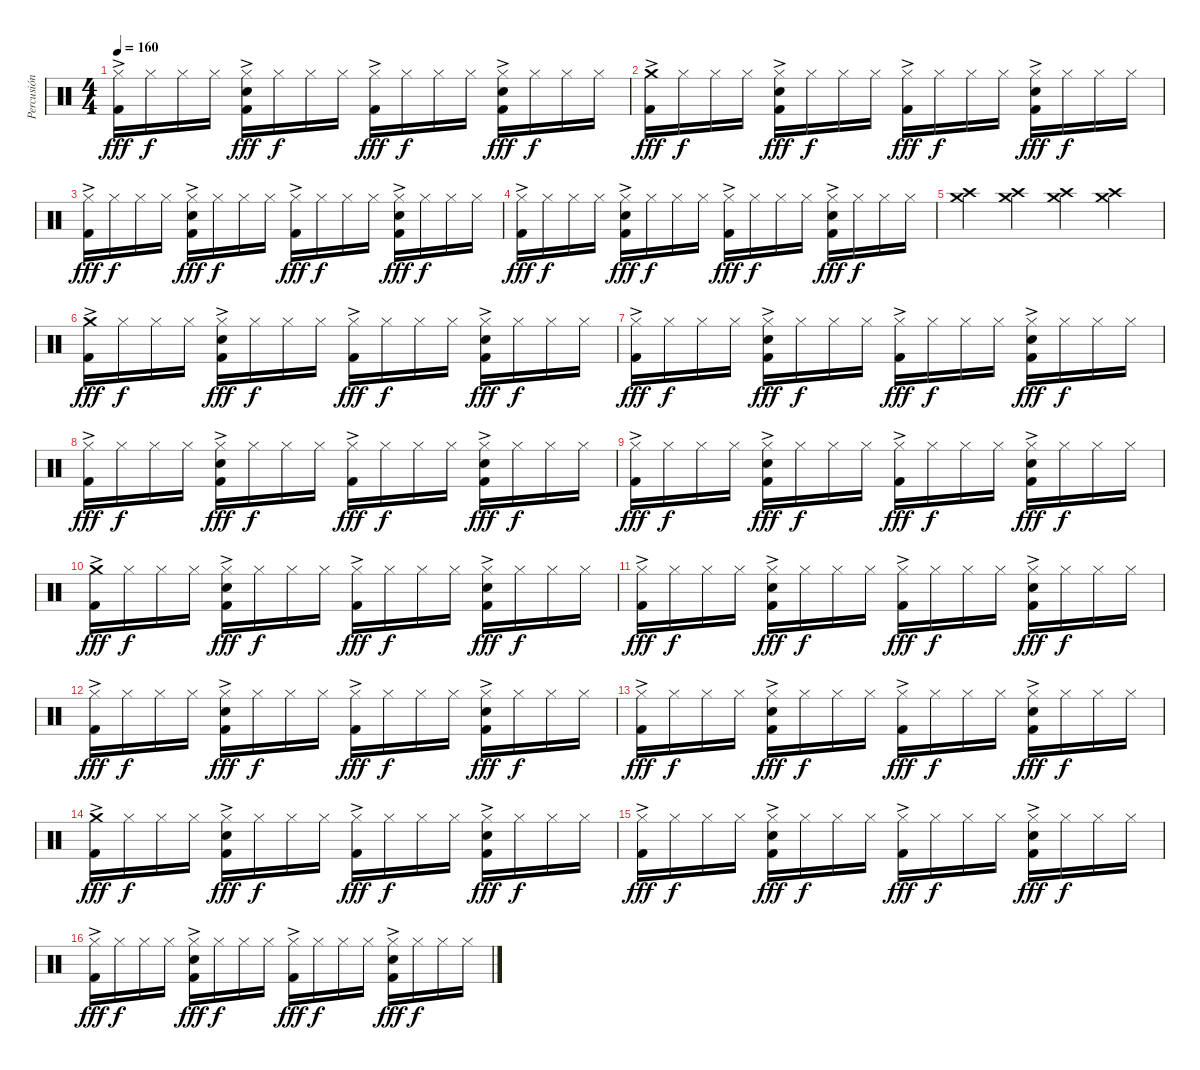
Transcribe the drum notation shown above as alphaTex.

\track ("Percusión" "Percusión") {instrument percussion}
\staff {score}
\articulation defaults
\ts (4 4)
\tempo 160
\clef neutral
\ks c
("Hi-Hat (closed)" "Kick (hit) 2"{ac}).16{dy fff} "Hi-Hat (closed)".16{dy f} "Hi-Hat (closed)".16 "Hi-Hat (closed)".16 ("Hi-Hat (closed)"{ac} "Electric Snare (hit)" "Kick (hit) 2").16{dy fff} "Hi-Hat (closed)".16{dy f} "Hi-Hat (closed)".16 "Hi-Hat (closed)".16 ("Hi-Hat (closed)"{ac} "Kick (hit) 2"{ac}).16{dy fff} "Hi-Hat (closed)".16{dy f} "Hi-Hat (closed)".16 "Hi-Hat (closed)".16 ("Hi-Hat (closed)"{ac} "Electric Snare (hit)" "Kick (hit) 2").16{dy fff} "Hi-Hat (closed)".16{dy f} "Hi-Hat (closed)".16 "Hi-Hat (closed)".16 |
("Crash medium (hit)" "Kick (hit) 2"{ac}).16{dy fff} "Hi-Hat (closed)".16{dy f} "Hi-Hat (closed)".16 "Hi-Hat (closed)".16 ("Hi-Hat (closed)"{ac} "Electric Snare (hit)" "Kick (hit) 2").16{dy fff} "Hi-Hat (closed)".16{dy f} "Hi-Hat (closed)".16 "Hi-Hat (closed)".16 ("Hi-Hat (closed)"{ac} "Kick (hit) 2"{ac}).16{dy fff} "Hi-Hat (closed)".16{dy f} "Hi-Hat (closed)".16 "Hi-Hat (closed)".16 ("Hi-Hat (closed)"{ac} "Electric Snare (hit)" "Kick (hit) 2").16{dy fff} "Hi-Hat (closed)".16{dy f} "Hi-Hat (closed)".16 "Hi-Hat (closed)".16 |
("Hi-Hat (closed)" "Kick (hit) 2"{ac}).16{dy fff} "Hi-Hat (closed)".16{dy f} "Hi-Hat (closed)".16 "Hi-Hat (closed)".16 ("Hi-Hat (closed)"{ac} "Electric Snare (hit)" "Kick (hit) 2").16{dy fff} "Hi-Hat (closed)".16{dy f} "Hi-Hat (closed)".16 "Hi-Hat (closed)".16 ("Hi-Hat (closed)"{ac} "Kick (hit) 2"{ac}).16{dy fff} "Hi-Hat (closed)".16{dy f} "Hi-Hat (closed)".16 "Hi-Hat (closed)".16 ("Hi-Hat (closed)"{ac} "Electric Snare (hit)" "Kick (hit) 2").16{dy fff} "Hi-Hat (closed)".16{dy f} "Hi-Hat (closed)".16 "Hi-Hat (closed)".16 |
("Hi-Hat (closed)" "Kick (hit) 2"{ac}).16{dy fff} "Hi-Hat (closed)".16{dy f} "Hi-Hat (closed)".16 "Hi-Hat (closed)".16 ("Hi-Hat (closed)"{ac} "Electric Snare (hit)" "Kick (hit) 2").16{dy fff} "Hi-Hat (closed)".16{dy f} "Hi-Hat (closed)".16 "Hi-Hat (closed)".16 ("Hi-Hat (closed)"{ac} "Kick (hit) 2"{ac}).16{dy fff} "Hi-Hat (closed)".16{dy f} "Hi-Hat (closed)".16 "Hi-Hat (closed)".16 ("Hi-Hat (closed)"{ac} "Electric Snare (hit)" "Kick (hit) 2").16{dy fff} "Hi-Hat (closed)".16{dy f} "Hi-Hat (closed)".16 "Hi-Hat (closed)".16 |
("Crash medium (hit)" "Crash high (hit)").4 ("Crash medium (hit)" "Crash high (hit)").4 ("Crash medium (hit)" "Crash high (hit)").4 ("Crash medium (hit)" "Crash high (hit)").4 |
("Crash medium (hit)" "Kick (hit) 2"{ac}).16{dy fff} "Hi-Hat (closed)".16{dy f} "Hi-Hat (closed)".16 "Hi-Hat (closed)".16 ("Hi-Hat (closed)"{ac} "Electric Snare (hit)" "Kick (hit) 2").16{dy fff} "Hi-Hat (closed)".16{dy f} "Hi-Hat (closed)".16 "Hi-Hat (closed)".16 ("Hi-Hat (closed)"{ac} "Kick (hit) 2"{ac}).16{dy fff} "Hi-Hat (closed)".16{dy f} "Hi-Hat (closed)".16 "Hi-Hat (closed)".16 ("Hi-Hat (closed)"{ac} "Electric Snare (hit)" "Kick (hit) 2").16{dy fff} "Hi-Hat (closed)".16{dy f} "Hi-Hat (closed)".16 "Hi-Hat (closed)".16 |
("Hi-Hat (closed)" "Kick (hit) 2"{ac}).16{dy fff} "Hi-Hat (closed)".16{dy f} "Hi-Hat (closed)".16 "Hi-Hat (closed)".16 ("Hi-Hat (closed)"{ac} "Electric Snare (hit)" "Kick (hit) 2").16{dy fff} "Hi-Hat (closed)".16{dy f} "Hi-Hat (closed)".16 "Hi-Hat (closed)".16 ("Hi-Hat (closed)"{ac} "Kick (hit) 2"{ac}).16{dy fff} "Hi-Hat (closed)".16{dy f} "Hi-Hat (closed)".16 "Hi-Hat (closed)".16 ("Hi-Hat (closed)"{ac} "Electric Snare (hit)" "Kick (hit) 2").16{dy fff} "Hi-Hat (closed)".16{dy f} "Hi-Hat (closed)".16 "Hi-Hat (closed)".16 |
("Hi-Hat (closed)" "Kick (hit) 2"{ac}).16{dy fff} "Hi-Hat (closed)".16{dy f} "Hi-Hat (closed)".16 "Hi-Hat (closed)".16 ("Hi-Hat (closed)"{ac} "Electric Snare (hit)" "Kick (hit) 2").16{dy fff} "Hi-Hat (closed)".16{dy f} "Hi-Hat (closed)".16 "Hi-Hat (closed)".16 ("Hi-Hat (closed)"{ac} "Kick (hit) 2"{ac}).16{dy fff} "Hi-Hat (closed)".16{dy f} "Hi-Hat (closed)".16 "Hi-Hat (closed)".16 ("Hi-Hat (closed)"{ac} "Electric Snare (hit)" "Kick (hit) 2").16{dy fff} "Hi-Hat (closed)".16{dy f} "Hi-Hat (closed)".16 "Hi-Hat (closed)".16 |
("Hi-Hat (closed)" "Kick (hit) 2"{ac}).16{dy fff} "Hi-Hat (closed)".16{dy f} "Hi-Hat (closed)".16 "Hi-Hat (closed)".16 ("Hi-Hat (closed)"{ac} "Electric Snare (hit)" "Kick (hit) 2").16{dy fff} "Hi-Hat (closed)".16{dy f} "Hi-Hat (closed)".16 "Hi-Hat (closed)".16 ("Hi-Hat (closed)"{ac} "Kick (hit) 2"{ac}).16{dy fff} "Hi-Hat (closed)".16{dy f} "Hi-Hat (closed)".16 "Hi-Hat (closed)".16 ("Hi-Hat (closed)"{ac} "Electric Snare (hit)" "Kick (hit) 2").16{dy fff} "Hi-Hat (closed)".16{dy f} "Hi-Hat (closed)".16 "Hi-Hat (closed)".16 |
("Crash medium (hit)" "Kick (hit) 2"{ac}).16{dy fff} "Hi-Hat (closed)".16{dy f} "Hi-Hat (closed)".16 "Hi-Hat (closed)".16 ("Hi-Hat (closed)"{ac} "Electric Snare (hit)" "Kick (hit) 2").16{dy fff} "Hi-Hat (closed)".16{dy f} "Hi-Hat (closed)".16 "Hi-Hat (closed)".16 ("Hi-Hat (closed)"{ac} "Kick (hit) 2"{ac}).16{dy fff} "Hi-Hat (closed)".16{dy f} "Hi-Hat (closed)".16 "Hi-Hat (closed)".16 ("Hi-Hat (closed)"{ac} "Electric Snare (hit)" "Kick (hit) 2").16{dy fff} "Hi-Hat (closed)".16{dy f} "Hi-Hat (closed)".16 "Hi-Hat (closed)".16 |
("Hi-Hat (closed)" "Kick (hit) 2"{ac}).16{dy fff} "Hi-Hat (closed)".16{dy f} "Hi-Hat (closed)".16 "Hi-Hat (closed)".16 ("Hi-Hat (closed)"{ac} "Electric Snare (hit)" "Kick (hit) 2").16{dy fff} "Hi-Hat (closed)".16{dy f} "Hi-Hat (closed)".16 "Hi-Hat (closed)".16 ("Hi-Hat (closed)"{ac} "Kick (hit) 2"{ac}).16{dy fff} "Hi-Hat (closed)".16{dy f} "Hi-Hat (closed)".16 "Hi-Hat (closed)".16 ("Hi-Hat (closed)"{ac} "Electric Snare (hit)" "Kick (hit) 2").16{dy fff} "Hi-Hat (closed)".16{dy f} "Hi-Hat (closed)".16 "Hi-Hat (closed)".16 |
("Hi-Hat (closed)" "Kick (hit) 2"{ac}).16{dy fff} "Hi-Hat (closed)".16{dy f} "Hi-Hat (closed)".16 "Hi-Hat (closed)".16 ("Hi-Hat (closed)"{ac} "Electric Snare (hit)" "Kick (hit) 2").16{dy fff} "Hi-Hat (closed)".16{dy f} "Hi-Hat (closed)".16 "Hi-Hat (closed)".16 ("Hi-Hat (closed)"{ac} "Kick (hit) 2"{ac}).16{dy fff} "Hi-Hat (closed)".16{dy f} "Hi-Hat (closed)".16 "Hi-Hat (closed)".16 ("Hi-Hat (closed)"{ac} "Electric Snare (hit)" "Kick (hit) 2").16{dy fff} "Hi-Hat (closed)".16{dy f} "Hi-Hat (closed)".16 "Hi-Hat (closed)".16 |
("Hi-Hat (closed)" "Kick (hit) 2"{ac}).16{dy fff} "Hi-Hat (closed)".16{dy f} "Hi-Hat (closed)".16 "Hi-Hat (closed)".16 ("Hi-Hat (closed)"{ac} "Electric Snare (hit)" "Kick (hit) 2").16{dy fff} "Hi-Hat (closed)".16{dy f} "Hi-Hat (closed)".16 "Hi-Hat (closed)".16 ("Hi-Hat (closed)"{ac} "Kick (hit) 2"{ac}).16{dy fff} "Hi-Hat (closed)".16{dy f} "Hi-Hat (closed)".16 "Hi-Hat (closed)".16 ("Hi-Hat (closed)"{ac} "Electric Snare (hit)" "Kick (hit) 2").16{dy fff} "Hi-Hat (closed)".16{dy f} "Hi-Hat (closed)".16 "Hi-Hat (closed)".16 |
("Crash medium (hit)" "Kick (hit) 2"{ac}).16{dy fff} "Hi-Hat (closed)".16{dy f} "Hi-Hat (closed)".16 "Hi-Hat (closed)".16 ("Hi-Hat (closed)"{ac} "Electric Snare (hit)" "Kick (hit) 2").16{dy fff} "Hi-Hat (closed)".16{dy f} "Hi-Hat (closed)".16 "Hi-Hat (closed)".16 ("Hi-Hat (closed)"{ac} "Kick (hit) 2"{ac}).16{dy fff} "Hi-Hat (closed)".16{dy f} "Hi-Hat (closed)".16 "Hi-Hat (closed)".16 ("Hi-Hat (closed)"{ac} "Electric Snare (hit)" "Kick (hit) 2").16{dy fff} "Hi-Hat (closed)".16{dy f} "Hi-Hat (closed)".16 "Hi-Hat (closed)".16 |
("Hi-Hat (closed)" "Kick (hit) 2"{ac}).16{dy fff} "Hi-Hat (closed)".16{dy f} "Hi-Hat (closed)".16 "Hi-Hat (closed)".16 ("Hi-Hat (closed)"{ac} "Electric Snare (hit)" "Kick (hit) 2").16{dy fff} "Hi-Hat (closed)".16{dy f} "Hi-Hat (closed)".16 "Hi-Hat (closed)".16 ("Hi-Hat (closed)"{ac} "Kick (hit) 2"{ac}).16{dy fff} "Hi-Hat (closed)".16{dy f} "Hi-Hat (closed)".16 "Hi-Hat (closed)".16 ("Hi-Hat (closed)"{ac} "Electric Snare (hit)" "Kick (hit) 2").16{dy fff} "Hi-Hat (closed)".16{dy f} "Hi-Hat (closed)".16 "Hi-Hat (closed)".16 |
("Hi-Hat (closed)" "Kick (hit) 2"{ac}).16{dy fff} "Hi-Hat (closed)".16{dy f} "Hi-Hat (closed)".16 "Hi-Hat (closed)".16 ("Hi-Hat (closed)"{ac} "Electric Snare (hit)" "Kick (hit) 2").16{dy fff} "Hi-Hat (closed)".16{dy f} "Hi-Hat (closed)".16 "Hi-Hat (closed)".16 ("Hi-Hat (closed)"{ac} "Kick (hit) 2"{ac}).16{dy fff} "Hi-Hat (closed)".16{dy f} "Hi-Hat (closed)".16 "Hi-Hat (closed)".16 ("Hi-Hat (closed)"{ac} "Electric Snare (hit)" "Kick (hit) 2").16{dy fff} "Hi-Hat (closed)".16{dy f} "Hi-Hat (closed)".16 "Hi-Hat (closed)".16
